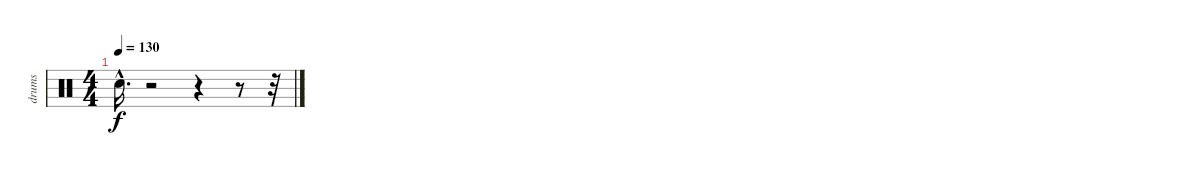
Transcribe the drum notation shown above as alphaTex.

\track ("drums" "drums") {instrument percussion}
\staff {score}
\articulation defaults
\ts (4 4)
\tempo 130
\clef neutral
\ks c "Snare (hit)"{hac t}.16{d dy f}
r.2 r.4 r.8 r.32
